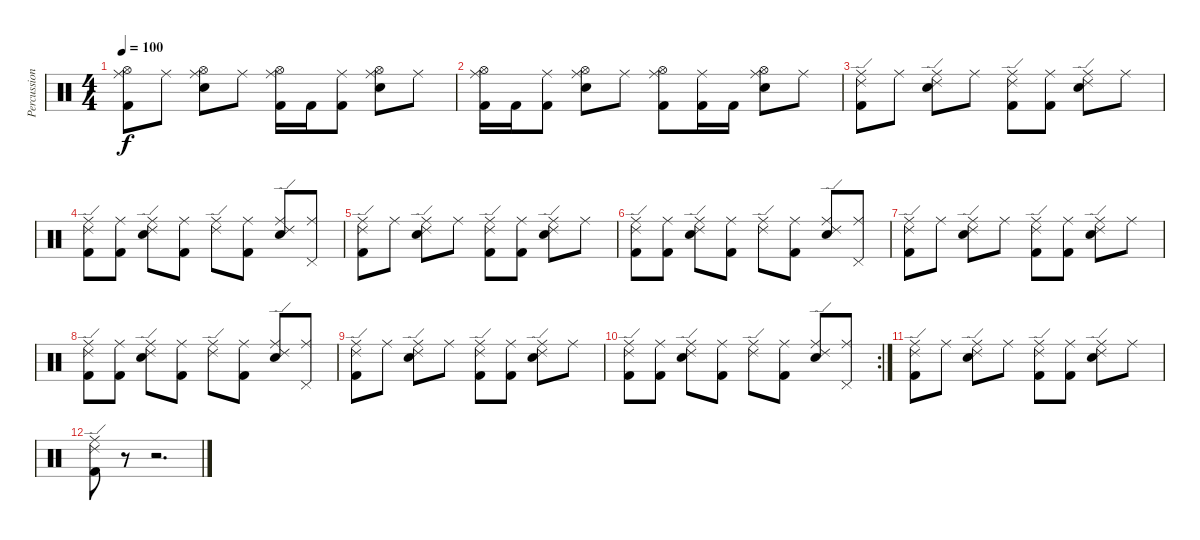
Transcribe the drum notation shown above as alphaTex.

\track ("Percussions" "Percussion") {instrument percussion}
\staff {score}
\articulation defaults
\ts (4 4)
\tempo 100
\clef neutral
\ks c
("Ride (middle)" "Hi-Hat (open)" "Kick (hit) 2").8{dy f} "Ride (middle)".8 ("Ride (middle)" "Hi-Hat (open)" "Snare (hit) 2").8 "Ride (middle)".8 ("Ride (middle)" "Hi-Hat (open)" "Kick (hit) 2").16 "Kick (hit) 2".16 ("Ride (middle)" "Kick (hit) 2").8 ("Ride (middle)" "Hi-Hat (open)" "Snare (hit) 2").8 "Ride (middle)".8 |
("Ride (middle)" "Hi-Hat (open)" "Kick (hit) 2").16 "Kick (hit) 2".16 ("Ride (middle)" "Kick (hit) 2").8 ("Ride (middle)" "Hi-Hat (open)" "Snare (hit) 2").8 "Ride (middle)".8 ("Ride (middle)" "Hi-Hat (open)" "Kick (hit) 2").8 ("Ride (middle)" "Kick (hit) 2").16 "Kick (hit) 2".16 ("Ride (middle)" "Hi-Hat (open)" "Snare (hit) 2").8 "Ride (middle)".8 |
("Ride (middle)" "Ride (edge) 2" "Kick (hit) 2").8 "Ride (middle)".8 ("Ride (middle)" "Ride (edge) 2" "Snare (hit) 2").8 "Ride (middle)".8 ("Ride (middle)" "Ride (edge) 2" "Kick (hit) 2").8 ("Ride (middle)" "Kick (hit) 2").8 ("Ride (middle)" "Ride (edge) 2" "Snare (hit) 2").8 "Ride (middle)".8 |
("Ride (middle)" "Ride (edge) 2" "Kick (hit) 2").8 ("Ride (middle)" "Kick (hit) 2").8 ("Ride (middle)" "Ride (edge) 2" "Snare (hit) 2").8 ("Ride (middle)" "Kick (hit) 2").8 ("Ride (middle)" "Ride (edge) 2").8 ("Ride (middle)" "Kick (hit) 2").8 ("Ride (middle)" "Ride (edge) 2" "Snare (hit) 2").8 ("Pedal Hi-Hat (hit)" "Ride (middle)").8 |
("Ride (middle)" "Ride (edge) 2" "Kick (hit) 2").8 "Ride (middle)".8 ("Ride (middle)" "Ride (edge) 2" "Snare (hit) 2").8 "Ride (middle)".8 ("Ride (middle)" "Ride (edge) 2" "Kick (hit) 2").8 ("Ride (middle)" "Kick (hit) 2").8 ("Ride (middle)" "Ride (edge) 2" "Snare (hit) 2").8 "Ride (middle)".8 |
("Ride (middle)" "Ride (edge) 2" "Kick (hit) 2").8 ("Ride (middle)" "Kick (hit) 2").8 ("Ride (middle)" "Ride (edge) 2" "Snare (hit) 2").8 ("Ride (middle)" "Kick (hit) 2").8 ("Ride (middle)" "Ride (edge) 2").8 ("Ride (middle)" "Kick (hit) 2").8 ("Ride (middle)" "Ride (edge) 2" "Snare (hit) 2").8 ("Pedal Hi-Hat (hit)" "Ride (middle)").8 |
("Ride (middle)" "Ride (edge) 2" "Kick (hit) 2").8 "Ride (middle)".8 ("Ride (middle)" "Ride (edge) 2" "Snare (hit) 2").8 "Ride (middle)".8 ("Ride (middle)" "Ride (edge) 2" "Kick (hit) 2").8 ("Ride (middle)" "Kick (hit) 2").8 ("Ride (middle)" "Ride (edge) 2" "Snare (hit) 2").8 "Ride (middle)".8 |
("Ride (middle)" "Ride (edge) 2" "Kick (hit) 2").8 ("Ride (middle)" "Kick (hit) 2").8 ("Ride (middle)" "Ride (edge) 2" "Snare (hit) 2").8 ("Ride (middle)" "Kick (hit) 2").8 ("Ride (middle)" "Ride (edge) 2").8 ("Ride (middle)" "Kick (hit) 2").8 ("Ride (middle)" "Ride (edge) 2" "Snare (hit) 2").8 ("Pedal Hi-Hat (hit)" "Ride (middle)").8 |
("Ride (middle)" "Ride (edge) 2" "Kick (hit) 2").8 "Ride (middle)".8 ("Ride (middle)" "Ride (edge) 2" "Snare (hit) 2").8 "Ride (middle)".8 ("Ride (middle)" "Ride (edge) 2" "Kick (hit) 2").8 ("Ride (middle)" "Kick (hit) 2").8 ("Ride (middle)" "Ride (edge) 2" "Snare (hit) 2").8 "Ride (middle)".8 |
\rc 2
("Ride (middle)" "Ride (edge) 2" "Kick (hit) 2").8 ("Ride (middle)" "Kick (hit) 2").8 ("Ride (middle)" "Ride (edge) 2" "Snare (hit) 2").8 ("Ride (middle)" "Kick (hit) 2").8 ("Ride (middle)" "Ride (edge) 2").8 ("Ride (middle)" "Kick (hit) 2").8 ("Ride (middle)" "Ride (edge) 2" "Snare (hit) 2").8 ("Pedal Hi-Hat (hit)" "Ride (middle)").8 |
("Ride (middle)" "Ride (edge) 2" "Kick (hit) 2").8 "Ride (middle)".8 ("Ride (middle)" "Ride (edge) 2" "Snare (hit) 2").8 "Ride (middle)".8 ("Ride (middle)" "Ride (edge) 2" "Kick (hit) 2").8 ("Ride (middle)" "Kick (hit) 2").8 ("Ride (middle)" "Ride (edge) 2" "Snare (hit) 2").8 "Ride (middle)".8 |
("Ride (middle)" "Ride (edge) 2" "Kick (hit) 2").8 r.8 r.2{d}
